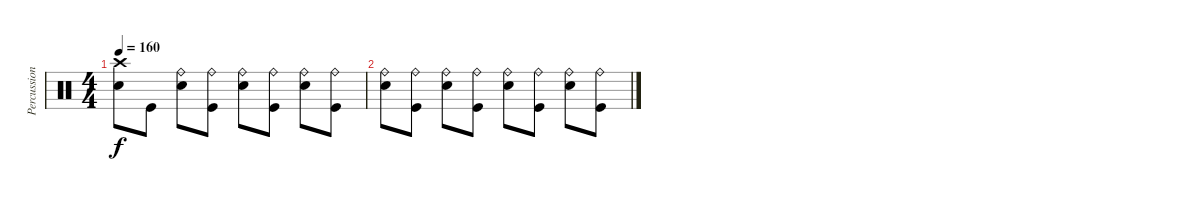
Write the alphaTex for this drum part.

\track ("Percussion" "Percussion") {instrument percussion}
\staff {score}
\articulation defaults
\ts (4 4)
\tempo 160
\clef neutral
\ks c
("Crash high (hit)" "Electric Snare (hit)").8{dy f} "Kick (hit)".8 ("Ride (bell)" "Electric Snare (hit)").8 ("Ride (bell)" "Kick (hit)").8 ("Ride (bell)" "Electric Snare (hit)").8 ("Ride (bell)" "Kick (hit)").8 ("Ride (bell)" "Electric Snare (hit)").8 ("Ride (bell)" "Kick (hit)").8 |
("Electric Snare (hit)" "Ride (bell)").8 ("Kick (hit)" "Ride (bell)").8 ("Electric Snare (hit)" "Ride (bell)").8 ("Kick (hit)" "Ride (bell)").8 ("Electric Snare (hit)" "Ride (bell)").8 ("Kick (hit)" "Ride (bell)").8 ("Electric Snare (hit)" "Ride (bell)").8 ("Kick (hit)" "Ride (bell)").8
